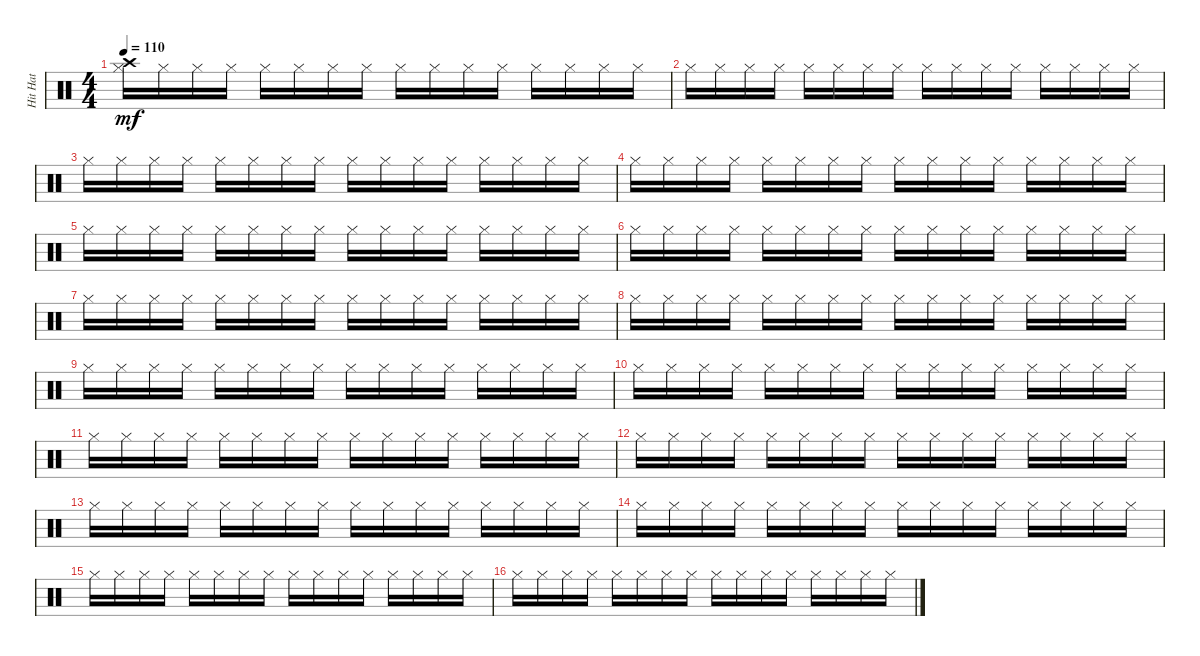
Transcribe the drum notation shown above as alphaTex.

\track ("Hit Hat" "Hit Hat") {instrument percussion}
\staff {score}
\articulation defaults
\ts (4 4)
\tempo 110
\clef neutral
\ks c
("Crash high (hit)" "Hi-Hat (closed)").16{dy mf} "Hi-Hat (closed)".16 "Hi-Hat (closed)".16 "Hi-Hat (closed)".16 "Hi-Hat (closed)".16 "Hi-Hat (closed)".16 "Hi-Hat (closed)".16 "Hi-Hat (closed)".16 "Hi-Hat (closed)".16 "Hi-Hat (closed)".16 "Hi-Hat (closed)".16 "Hi-Hat (closed)".16 "Hi-Hat (closed)".16 "Hi-Hat (closed)".16 "Hi-Hat (closed)".16 "Hi-Hat (closed)".16 |
"Hi-Hat (closed)".16 "Hi-Hat (closed)".16 "Hi-Hat (closed)".16 "Hi-Hat (closed)".16 "Hi-Hat (closed)".16 "Hi-Hat (closed)".16 "Hi-Hat (closed)".16 "Hi-Hat (closed)".16 "Hi-Hat (closed)".16 "Hi-Hat (closed)".16 "Hi-Hat (closed)".16 "Hi-Hat (closed)".16 "Hi-Hat (closed)".16 "Hi-Hat (closed)".16 "Hi-Hat (closed)".16 "Hi-Hat (closed)".16 |
"Hi-Hat (closed)".16 "Hi-Hat (closed)".16 "Hi-Hat (closed)".16 "Hi-Hat (closed)".16 "Hi-Hat (closed)".16 "Hi-Hat (closed)".16 "Hi-Hat (closed)".16 "Hi-Hat (closed)".16 "Hi-Hat (closed)".16 "Hi-Hat (closed)".16 "Hi-Hat (closed)".16 "Hi-Hat (closed)".16 "Hi-Hat (closed)".16 "Hi-Hat (closed)".16 "Hi-Hat (closed)".16 "Hi-Hat (closed)".16 |
"Hi-Hat (closed)".16 "Hi-Hat (closed)".16 "Hi-Hat (closed)".16 "Hi-Hat (closed)".16 "Hi-Hat (closed)".16 "Hi-Hat (closed)".16 "Hi-Hat (closed)".16 "Hi-Hat (closed)".16 "Hi-Hat (closed)".16 "Hi-Hat (closed)".16 "Hi-Hat (closed)".16 "Hi-Hat (closed)".16 "Hi-Hat (closed)".16 "Hi-Hat (closed)".16 "Hi-Hat (closed)".16 "Hi-Hat (closed)".16 |
"Hi-Hat (closed)".16 "Hi-Hat (closed)".16 "Hi-Hat (closed)".16 "Hi-Hat (closed)".16 "Hi-Hat (closed)".16 "Hi-Hat (closed)".16 "Hi-Hat (closed)".16 "Hi-Hat (closed)".16 "Hi-Hat (closed)".16 "Hi-Hat (closed)".16 "Hi-Hat (closed)".16 "Hi-Hat (closed)".16 "Hi-Hat (closed)".16 "Hi-Hat (closed)".16 "Hi-Hat (closed)".16 "Hi-Hat (closed)".16 |
"Hi-Hat (closed)".16 "Hi-Hat (closed)".16 "Hi-Hat (closed)".16 "Hi-Hat (closed)".16 "Hi-Hat (closed)".16 "Hi-Hat (closed)".16 "Hi-Hat (closed)".16 "Hi-Hat (closed)".16 "Hi-Hat (closed)".16 "Hi-Hat (closed)".16 "Hi-Hat (closed)".16 "Hi-Hat (closed)".16 "Hi-Hat (closed)".16 "Hi-Hat (closed)".16 "Hi-Hat (closed)".16 "Hi-Hat (closed)".16 |
"Hi-Hat (closed)".16 "Hi-Hat (closed)".16 "Hi-Hat (closed)".16 "Hi-Hat (closed)".16 "Hi-Hat (closed)".16 "Hi-Hat (closed)".16 "Hi-Hat (closed)".16 "Hi-Hat (closed)".16 "Hi-Hat (closed)".16 "Hi-Hat (closed)".16 "Hi-Hat (closed)".16 "Hi-Hat (closed)".16 "Hi-Hat (closed)".16 "Hi-Hat (closed)".16 "Hi-Hat (closed)".16 "Hi-Hat (closed)".16 |
"Hi-Hat (closed)".16 "Hi-Hat (closed)".16 "Hi-Hat (closed)".16 "Hi-Hat (closed)".16 "Hi-Hat (closed)".16 "Hi-Hat (closed)".16 "Hi-Hat (closed)".16 "Hi-Hat (closed)".16 "Hi-Hat (closed)".16 "Hi-Hat (closed)".16 "Hi-Hat (closed)".16 "Hi-Hat (closed)".16 "Hi-Hat (closed)".16 "Hi-Hat (closed)".16 "Hi-Hat (closed)".16 "Hi-Hat (closed)".16 |
"Hi-Hat (closed)".16 "Hi-Hat (closed)".16 "Hi-Hat (closed)".16 "Hi-Hat (closed)".16 "Hi-Hat (closed)".16 "Hi-Hat (closed)".16 "Hi-Hat (closed)".16 "Hi-Hat (closed)".16 "Hi-Hat (closed)".16 "Hi-Hat (closed)".16 "Hi-Hat (closed)".16 "Hi-Hat (closed)".16 "Hi-Hat (closed)".16 "Hi-Hat (closed)".16 "Hi-Hat (closed)".16 "Hi-Hat (closed)".16 |
"Hi-Hat (closed)".16 "Hi-Hat (closed)".16 "Hi-Hat (closed)".16 "Hi-Hat (closed)".16 "Hi-Hat (closed)".16 "Hi-Hat (closed)".16 "Hi-Hat (closed)".16 "Hi-Hat (closed)".16 "Hi-Hat (closed)".16 "Hi-Hat (closed)".16 "Hi-Hat (closed)".16 "Hi-Hat (closed)".16 "Hi-Hat (closed)".16 "Hi-Hat (closed)".16 "Hi-Hat (closed)".16 "Hi-Hat (closed)".16 |
"Hi-Hat (closed)".16 "Hi-Hat (closed)".16 "Hi-Hat (closed)".16 "Hi-Hat (closed)".16 "Hi-Hat (closed)".16 "Hi-Hat (closed)".16 "Hi-Hat (closed)".16 "Hi-Hat (closed)".16 "Hi-Hat (closed)".16 "Hi-Hat (closed)".16 "Hi-Hat (closed)".16 "Hi-Hat (closed)".16 "Hi-Hat (closed)".16 "Hi-Hat (closed)".16 "Hi-Hat (closed)".16 "Hi-Hat (closed)".16 |
"Hi-Hat (closed)".16 "Hi-Hat (closed)".16 "Hi-Hat (closed)".16 "Hi-Hat (closed)".16 "Hi-Hat (closed)".16 "Hi-Hat (closed)".16 "Hi-Hat (closed)".16 "Hi-Hat (closed)".16 "Hi-Hat (closed)".16 "Hi-Hat (closed)".16 "Hi-Hat (closed)".16 "Hi-Hat (closed)".16 "Hi-Hat (closed)".16 "Hi-Hat (closed)".16 "Hi-Hat (closed)".16 "Hi-Hat (closed)".16 |
"Hi-Hat (closed)".16 "Hi-Hat (closed)".16 "Hi-Hat (closed)".16 "Hi-Hat (closed)".16 "Hi-Hat (closed)".16 "Hi-Hat (closed)".16 "Hi-Hat (closed)".16 "Hi-Hat (closed)".16 "Hi-Hat (closed)".16 "Hi-Hat (closed)".16 "Hi-Hat (closed)".16 "Hi-Hat (closed)".16 "Hi-Hat (closed)".16 "Hi-Hat (closed)".16 "Hi-Hat (closed)".16 "Hi-Hat (closed)".16 |
"Hi-Hat (closed)".16 "Hi-Hat (closed)".16 "Hi-Hat (closed)".16 "Hi-Hat (closed)".16 "Hi-Hat (closed)".16 "Hi-Hat (closed)".16 "Hi-Hat (closed)".16 "Hi-Hat (closed)".16 "Hi-Hat (closed)".16 "Hi-Hat (closed)".16 "Hi-Hat (closed)".16 "Hi-Hat (closed)".16 "Hi-Hat (closed)".16 "Hi-Hat (closed)".16 "Hi-Hat (closed)".16 "Hi-Hat (closed)".16 |
"Hi-Hat (closed)".16 "Hi-Hat (closed)".16 "Hi-Hat (closed)".16 "Hi-Hat (closed)".16 "Hi-Hat (closed)".16 "Hi-Hat (closed)".16 "Hi-Hat (closed)".16 "Hi-Hat (closed)".16 "Hi-Hat (closed)".16 "Hi-Hat (closed)".16 "Hi-Hat (closed)".16 "Hi-Hat (closed)".16 "Hi-Hat (closed)".16 "Hi-Hat (closed)".16 "Hi-Hat (closed)".16 "Hi-Hat (closed)".16 |
"Hi-Hat (closed)".16 "Hi-Hat (closed)".16 "Hi-Hat (closed)".16 "Hi-Hat (closed)".16 "Hi-Hat (closed)".16 "Hi-Hat (closed)".16 "Hi-Hat (closed)".16 "Hi-Hat (closed)".16 "Hi-Hat (closed)".16 "Hi-Hat (closed)".16 "Hi-Hat (closed)".16 "Hi-Hat (closed)".16 "Hi-Hat (closed)".16 "Hi-Hat (closed)".16 "Hi-Hat (closed)".16 "Hi-Hat (closed)".16
